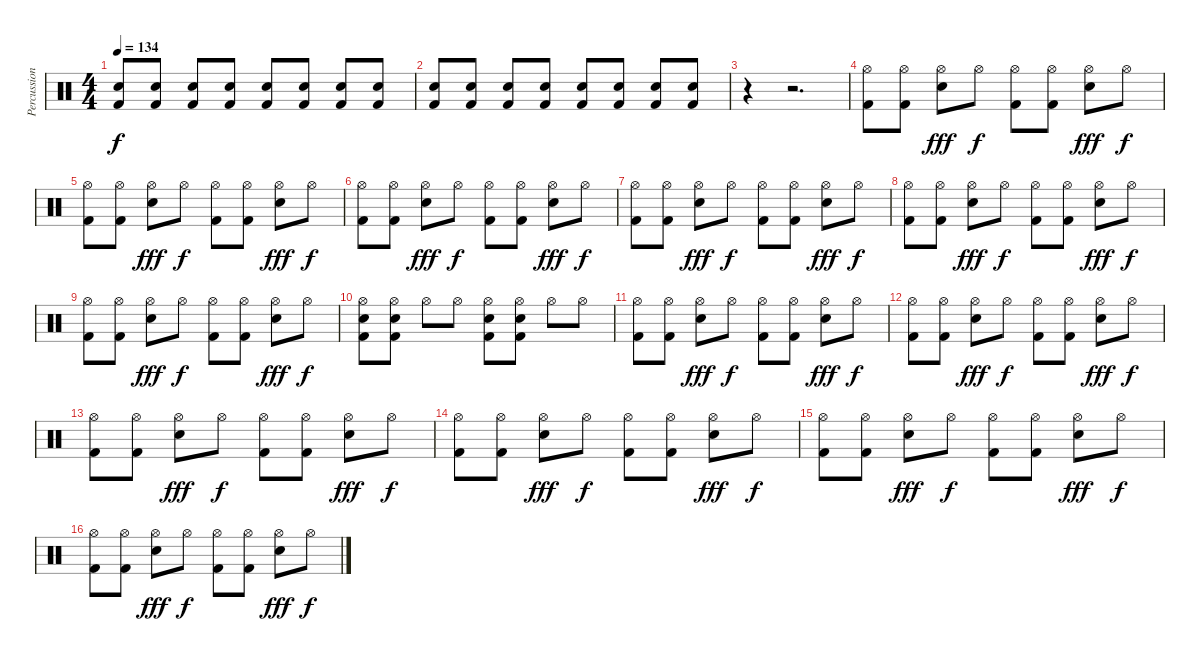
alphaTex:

\track ("Percussion" "Percussion") {instrument percussion}
\staff {score}
\articulation defaults
\ts (4 4)
\tempo 134
\clef neutral
\ks c
("Snare (hit) 2" "Kick (hit) 2").8{dy f} ("Snare (hit) 2" "Kick (hit) 2").8 ("Snare (hit) 2" "Kick (hit) 2").8 ("Snare (hit) 2" "Kick (hit) 2").8 ("Snare (hit) 2" "Kick (hit) 2").8 ("Snare (hit) 2" "Kick (hit) 2").8 ("Snare (hit) 2" "Kick (hit) 2").8 ("Snare (hit) 2" "Kick (hit) 2").8 |
("Snare (hit) 2" "Kick (hit) 2").8 ("Snare (hit) 2" "Kick (hit) 2").8 ("Snare (hit) 2" "Kick (hit) 2").8 ("Snare (hit) 2" "Kick (hit) 2").8 ("Snare (hit) 2" "Kick (hit) 2").8 ("Snare (hit) 2" "Kick (hit) 2").8 ("Snare (hit) 2" "Kick (hit) 2").8 ("Snare (hit) 2" "Kick (hit) 2").8 |
r.4 r.2{d} |
("Hi-Hat (open)" "Kick (hit) 2").8 ("Hi-Hat (open)" "Kick (hit) 2").8 ("Hi-Hat (open)" "Snare (hit) 2").8{dy fff} "Hi-Hat (open)".8{dy f} ("Hi-Hat (open)" "Kick (hit) 2").8 ("Hi-Hat (open)" "Kick (hit) 2").8 ("Hi-Hat (open)" "Snare (hit) 2").8{dy fff} "Hi-Hat (open)".8{dy f} |
("Hi-Hat (open)" "Kick (hit) 2").8 ("Hi-Hat (open)" "Kick (hit) 2").8 ("Hi-Hat (open)" "Snare (hit) 2").8{dy fff} "Hi-Hat (open)".8{dy f} ("Hi-Hat (open)" "Kick (hit) 2").8 ("Hi-Hat (open)" "Kick (hit) 2").8 ("Hi-Hat (open)" "Snare (hit) 2").8{dy fff} "Hi-Hat (open)".8{dy f} |
("Hi-Hat (open)" "Kick (hit) 2").8 ("Hi-Hat (open)" "Kick (hit) 2").8 ("Hi-Hat (open)" "Snare (hit) 2").8{dy fff} "Hi-Hat (open)".8{dy f} ("Hi-Hat (open)" "Kick (hit) 2").8 ("Hi-Hat (open)" "Kick (hit) 2").8 ("Hi-Hat (open)" "Snare (hit) 2").8{dy fff} "Hi-Hat (open)".8{dy f} |
("Hi-Hat (open)" "Kick (hit) 2").8 ("Hi-Hat (open)" "Kick (hit) 2").8 ("Hi-Hat (open)" "Snare (hit) 2").8{dy fff} "Hi-Hat (open)".8{dy f} ("Hi-Hat (open)" "Kick (hit) 2").8 ("Hi-Hat (open)" "Kick (hit) 2").8 ("Hi-Hat (open)" "Snare (hit) 2").8{dy fff} "Hi-Hat (open)".8{dy f} |
("Hi-Hat (open)" "Kick (hit) 2").8 ("Hi-Hat (open)" "Kick (hit) 2").8 ("Hi-Hat (open)" "Snare (hit) 2").8{dy fff} "Hi-Hat (open)".8{dy f} ("Hi-Hat (open)" "Kick (hit) 2").8 ("Hi-Hat (open)" "Kick (hit) 2").8 ("Hi-Hat (open)" "Snare (hit) 2").8{dy fff} "Hi-Hat (open)".8{dy f} |
("Hi-Hat (open)" "Kick (hit) 2").8 ("Hi-Hat (open)" "Kick (hit) 2").8 ("Hi-Hat (open)" "Snare (hit) 2").8{dy fff} "Hi-Hat (open)".8{dy f} ("Hi-Hat (open)" "Kick (hit) 2").8 ("Hi-Hat (open)" "Kick (hit) 2").8 ("Hi-Hat (open)" "Snare (hit) 2").8{dy fff} "Hi-Hat (open)".8{dy f} |
("Hi-Hat (open)" "Snare (hit) 2" "Kick (hit) 2").8 ("Hi-Hat (open)" "Snare (hit) 2" "Kick (hit) 2").8 "Hi-Hat (open)".8 "Hi-Hat (open)".8 ("Hi-Hat (open)" "Snare (hit) 2" "Kick (hit) 2").8 ("Hi-Hat (open)" "Snare (hit) 2" "Kick (hit) 2").8 "Hi-Hat (open)".8 "Hi-Hat (open)".8 |
("Hi-Hat (open)" "Kick (hit) 2").8 ("Hi-Hat (open)" "Kick (hit) 2").8 ("Hi-Hat (open)" "Snare (hit) 2").8{dy fff} "Hi-Hat (open)".8{dy f} ("Hi-Hat (open)" "Kick (hit) 2").8 ("Hi-Hat (open)" "Kick (hit) 2").8 ("Hi-Hat (open)" "Snare (hit) 2").8{dy fff} "Hi-Hat (open)".8{dy f} |
("Hi-Hat (open)" "Kick (hit) 2").8 ("Hi-Hat (open)" "Kick (hit) 2").8 ("Hi-Hat (open)" "Snare (hit) 2").8{dy fff} "Hi-Hat (open)".8{dy f} ("Hi-Hat (open)" "Kick (hit) 2").8 ("Hi-Hat (open)" "Kick (hit) 2").8 ("Hi-Hat (open)" "Snare (hit) 2").8{dy fff} "Hi-Hat (open)".8{dy f} |
("Hi-Hat (open)" "Kick (hit) 2").8 ("Hi-Hat (open)" "Kick (hit) 2").8 ("Hi-Hat (open)" "Snare (hit) 2").8{dy fff} "Hi-Hat (open)".8{dy f} ("Hi-Hat (open)" "Kick (hit) 2").8 ("Hi-Hat (open)" "Kick (hit) 2").8 ("Hi-Hat (open)" "Snare (hit) 2").8{dy fff} "Hi-Hat (open)".8{dy f} |
("Hi-Hat (open)" "Kick (hit) 2").8 ("Hi-Hat (open)" "Kick (hit) 2").8 ("Hi-Hat (open)" "Snare (hit) 2").8{dy fff} "Hi-Hat (open)".8{dy f} ("Hi-Hat (open)" "Kick (hit) 2").8 ("Hi-Hat (open)" "Kick (hit) 2").8 ("Hi-Hat (open)" "Snare (hit) 2").8{dy fff} "Hi-Hat (open)".8{dy f} |
("Hi-Hat (open)" "Kick (hit) 2").8 ("Hi-Hat (open)" "Kick (hit) 2").8 ("Hi-Hat (open)" "Snare (hit) 2").8{dy fff} "Hi-Hat (open)".8{dy f} ("Hi-Hat (open)" "Kick (hit) 2").8 ("Hi-Hat (open)" "Kick (hit) 2").8 ("Hi-Hat (open)" "Snare (hit) 2").8{dy fff} "Hi-Hat (open)".8{dy f} |
("Hi-Hat (open)" "Kick (hit) 2").8 ("Hi-Hat (open)" "Kick (hit) 2").8 ("Hi-Hat (open)" "Snare (hit) 2").8{dy fff} "Hi-Hat (open)".8{dy f} ("Hi-Hat (open)" "Kick (hit) 2").8 ("Hi-Hat (open)" "Kick (hit) 2").8 ("Hi-Hat (open)" "Snare (hit) 2").8{dy fff} "Hi-Hat (open)".8{dy f}
